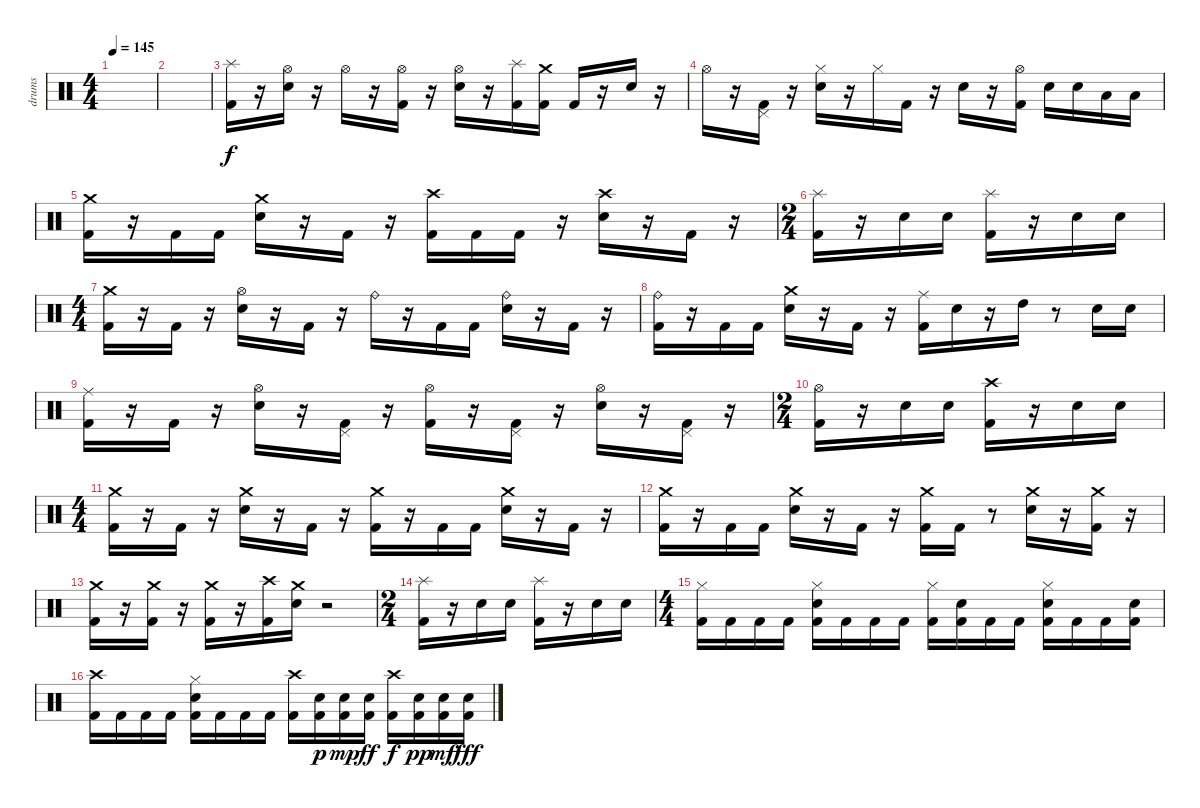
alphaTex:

\track ("drums" "drums") {instrument percussion}
\staff {score}
\articulation defaults
\ts (4 4)
\tempo 145
\clef neutral
\ks c
|
|
("Kick (hit) 2" "Splash (hit)").16 r.16 ("Snare (hit) 2" "Hi-Hat (open)").16 r.16 "Hi-Hat (open)".16 r.16 ("Kick (hit) 2" "Hi-Hat (open)").16 r.16 ("Snare (hit) 2" "Hi-Hat (open)").16 r.16 ("Kick (hit) 2" "Splash (hit)").16 ("Kick (hit) 2" "Crash medium (hit)").16 "Kick (hit) 2".16 r.16 "Snare (hit) 2".16 r.16 |
"Hi-Hat (open)".16 r.16 ("Kick (hit) 2" "Pedal Hi-Hat (hit)").16 r.16 ("Snare (hit) 2" "Hi-Hat (closed)").16 r.16 "Hi-Hat (closed)".16 "Kick (hit) 2".16 r.16 "Snare (hit) 2".16 r.16 ("Kick (hit) 2" "Hi-Hat (open)").16 "Snare (hit) 2".16 "Snare (hit) 2".16 "Low Tom (hit)".16 "Low Tom (hit)".16 |
("Kick (hit) 2" "Crash medium (hit)").16 r.16 "Kick (hit) 2".16 "Kick (hit) 2".16 ("Snare (hit) 2" "Crash medium (hit)").16 r.16 "Kick (hit) 2".16 r.16 ("Kick (hit) 2" "Crash high (hit)").16 "Kick (hit) 2".16 "Kick (hit) 2".16 r.16 ("Snare (hit) 2" "Crash high (hit)").16 r.16 "Kick (hit) 2".16 r.16 |
\ts (2 4)
("Kick (hit) 2" "Splash (hit)").16 r.16 "Snare (hit) 2".16 "Snare (hit) 2".16 ("Kick (hit) 2" "Splash (hit)").16 r.16 "Snare (hit) 2".16 "Snare (hit) 2".16 |
\ts (4 4)
("Kick (hit) 2" "Crash medium (hit)").16 r.16 "Kick (hit) 2".16 r.16 ("Snare (hit) 2" "Hi-Hat (open)").16 r.16 "Kick (hit) 2".16 r.16 "Ride (bell)".16 r.16 "Kick (hit) 2".16 "Kick (hit) 2".16 ("Snare (hit) 2" "Ride (bell)").16 r.16 "Kick (hit) 2".16 r.16 |
("Kick (hit) 2" "Ride (bell)").16 r.16 "Kick (hit) 2".16 "Kick (hit) 2".16 ("Snare (hit) 2" "Crash medium (hit)").16 r.16 "Kick (hit) 2".16 r.16 ("Kick (hit) 2" "Ride (middle)").16 "Electric Snare (hit)".16 r.16 "High Tom (hit)".16 r.8 "Snare (hit) 2".16 "Snare (hit) 2".16 |
("Kick (hit) 2" "Ride (middle)").16 r.16 "Kick (hit) 2".16 r.16 ("Snare (hit) 2" "Hi-Hat (open)").16 r.16 ("Kick (hit) 2" "Pedal Hi-Hat (hit)").16 r.16 ("Kick (hit) 2" "Hi-Hat (open)").16 r.16 ("Kick (hit) 2" "Pedal Hi-Hat (hit)").16 r.16 ("Snare (hit) 2" "Hi-Hat (open)").16 r.16 ("Kick (hit) 2" "Pedal Hi-Hat (hit)").16 r.16 |
\ts (2 4)
("Kick (hit) 2" "Hi-Hat (open)").16 r.16 "Snare (hit) 2".16 "Snare (hit) 2".16 ("Kick (hit) 2" "Crash high (hit)").16 r.16 "Snare (hit) 2".16 "Snare (hit) 2".16 |
\ts (4 4)
("Kick (hit) 2" "Crash medium (hit)").16 r.16 "Kick (hit) 2".16 r.16 ("Snare (hit) 2" "Crash medium (hit)").16 r.16 "Kick (hit) 2".16 r.16 ("Kick (hit) 2" "Crash medium (hit)").16 r.16 "Kick (hit) 2".16 "Kick (hit) 2".16 ("Snare (hit) 2" "Crash medium (hit)").16 r.16 "Kick (hit) 2".16 r.16 |
("Kick (hit) 2" "Crash medium (hit)").16 r.16 "Kick (hit) 2".16 "Kick (hit) 2".16 ("Snare (hit) 2" "Crash medium (hit)").16 r.16 "Kick (hit) 2".16 r.16 ("Kick (hit) 2" "Crash medium (hit)").16 "Kick (hit) 2".16 r.8 ("Snare (hit) 2" "Crash medium (hit)").16 r.16 ("Kick (hit) 2" "Crash medium (hit)").16 r.16 |
("Kick (hit) 2" "Crash medium (hit)").16 r.16 ("Kick (hit) 2" "Crash medium (hit)").16 r.16 ("Kick (hit) 2" "Crash medium (hit)").16 r.16 ("Kick (hit) 2" "Crash high (hit)").16 ("Snare (hit) 2" "Crash medium (hit)").16 r.2 |
\ts (2 4)
("Kick (hit) 2" "Splash (hit)").16 r.16 "Snare (hit) 2".16 "Snare (hit) 2".16 ("Kick (hit) 2" "Splash (hit)").16 r.16 "Snare (hit) 2".16 "Snare (hit) 2".16 |
\ts (4 4)
("Kick (hit) 2" "Hi-Hat (closed)").16 "Kick (hit) 2".16 "Kick (hit) 2".16 "Kick (hit) 2".16 ("Kick (hit) 2" "Snare (hit) 2" "Hi-Hat (closed)").16 "Kick (hit) 2".16 "Kick (hit) 2".16 "Kick (hit) 2".16 ("Kick (hit) 2" "Hi-Hat (closed)").16 ("Kick (hit) 2" "Snare (hit) 2").16 "Kick (hit) 2".16 "Kick (hit) 2".16 ("Kick (hit) 2" "Snare (hit) 2" "Hi-Hat (closed)").16 "Kick (hit) 2".16 "Kick (hit) 2".16 ("Kick (hit) 2" "Snare (hit) 2").16 |
("Kick (hit) 2" "Crash high (hit)").16 "Kick (hit) 2".16 "Kick (hit) 2".16 "Kick (hit) 2".16 ("Kick (hit) 2" "Snare (hit) 2" "Hi-Hat (closed)").16 "Kick (hit) 2".16 "Kick (hit) 2".16 "Kick (hit) 2".16 ("Kick (hit) 2" "Crash high (hit)").16 ("Kick (hit) 2" "Snare (hit) 2").16{dy p} ("Kick (hit) 2" "Snare (hit) 2").16{dy mp} ("Kick (hit) 2" "Snare (hit) 2").16{dy ff} ("Kick (hit) 2" "Crash high (hit)").16{dy f} ("Kick (hit) 2" "Snare (hit) 2").16{dy pp} ("Kick (hit) 2" "Snare (hit) 2").16{dy mf} ("Kick (hit) 2" "Snare (hit) 2").16{dy fff}
